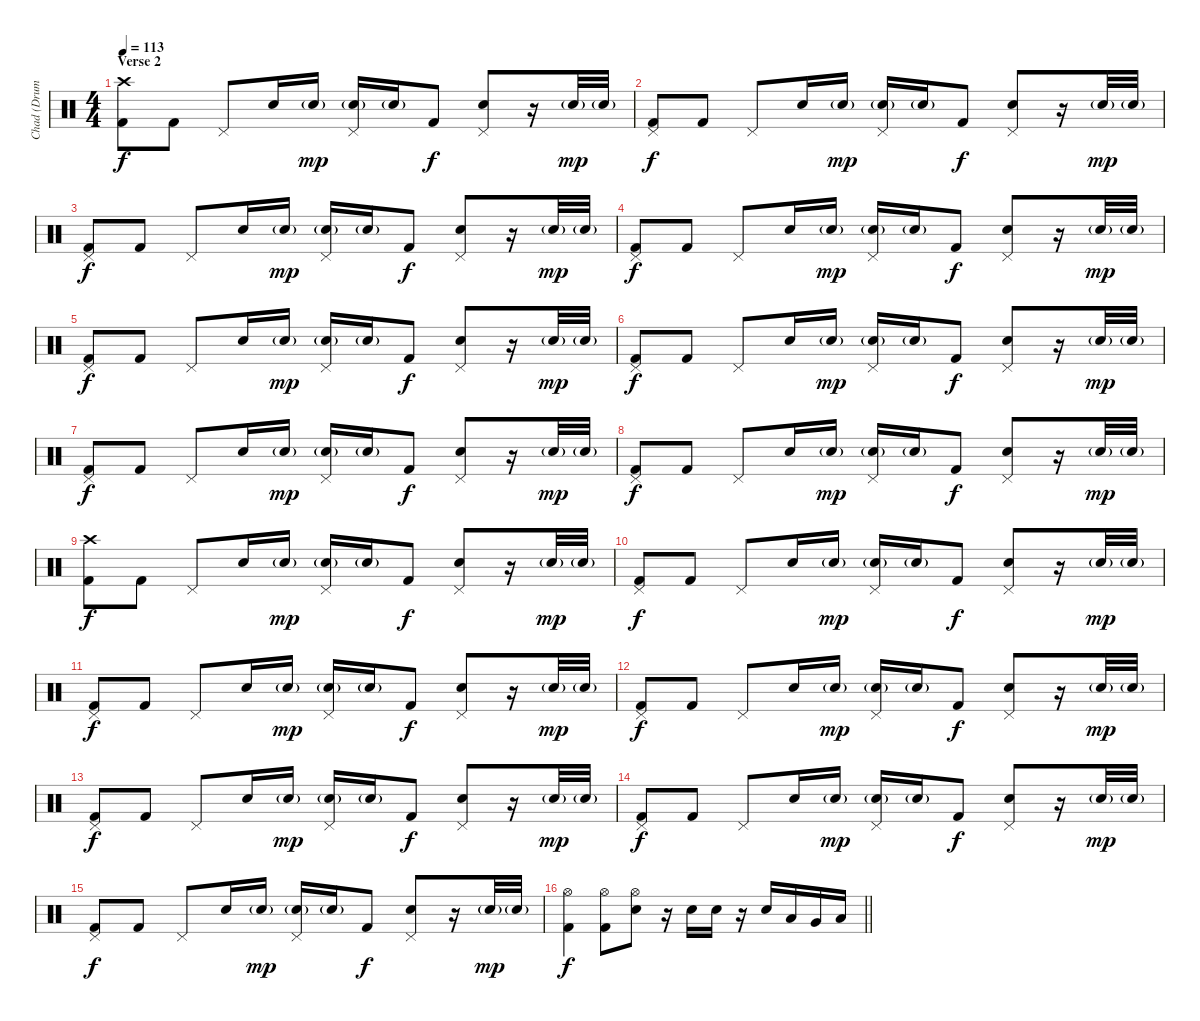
\track ("Chad (Drums)" "Chad (Drum") {instrument percussion}
\staff {score}
\articulation defaults
\ts (4 4)
\section ("" "Verse 2")
\tempo 113
\clef neutral
\ks c
("Crash high (hit)" "Kick (hit) 2").8{dy f} "Kick (hit) 2".8 "Pedal Hi-Hat (hit)".8 "Snare (hit) 2".16 "Snare (hit) 2"{g}.16{dy mp} ("Pedal Hi-Hat (hit)" "Snare (hit) 2"{g}).16 "Snare (hit) 2"{g}.16 "Kick (hit) 2".8{dy f} ("Pedal Hi-Hat (hit)" "Snare (hit) 2").8 r.16 "Snare (hit) 2"{g}.32{dy mp} "Snare (hit) 2"{g}.32 |
("Pedal Hi-Hat (hit)" "Kick (hit) 2").8{dy f} "Kick (hit) 2".8 "Pedal Hi-Hat (hit)".8 "Snare (hit) 2".16 "Snare (hit) 2"{g}.16{dy mp} ("Pedal Hi-Hat (hit)" "Snare (hit) 2"{g}).16 "Snare (hit) 2"{g}.16 "Kick (hit) 2".8{dy f} ("Pedal Hi-Hat (hit)" "Snare (hit) 2").8 r.16 "Snare (hit) 2"{g}.32{dy mp} "Snare (hit) 2"{g}.32 |
("Pedal Hi-Hat (hit)" "Kick (hit) 2").8{dy f} "Kick (hit) 2".8 "Pedal Hi-Hat (hit)".8 "Snare (hit) 2".16 "Snare (hit) 2"{g}.16{dy mp} ("Pedal Hi-Hat (hit)" "Snare (hit) 2"{g}).16 "Snare (hit) 2"{g}.16 "Kick (hit) 2".8{dy f} ("Pedal Hi-Hat (hit)" "Snare (hit) 2").8 r.16 "Snare (hit) 2"{g}.32{dy mp} "Snare (hit) 2"{g}.32 |
("Pedal Hi-Hat (hit)" "Kick (hit) 2").8{dy f} "Kick (hit) 2".8 "Pedal Hi-Hat (hit)".8 "Snare (hit) 2".16 "Snare (hit) 2"{g}.16{dy mp} ("Pedal Hi-Hat (hit)" "Snare (hit) 2"{g}).16 "Snare (hit) 2"{g}.16 "Kick (hit) 2".8{dy f} ("Pedal Hi-Hat (hit)" "Snare (hit) 2").8 r.16 "Snare (hit) 2"{g}.32{dy mp} "Snare (hit) 2"{g}.32 |
("Pedal Hi-Hat (hit)" "Kick (hit) 2").8{dy f} "Kick (hit) 2".8 "Pedal Hi-Hat (hit)".8 "Snare (hit) 2".16 "Snare (hit) 2"{g}.16{dy mp} ("Pedal Hi-Hat (hit)" "Snare (hit) 2"{g}).16 "Snare (hit) 2"{g}.16 "Kick (hit) 2".8{dy f} ("Pedal Hi-Hat (hit)" "Snare (hit) 2").8 r.16 "Snare (hit) 2"{g}.32{dy mp} "Snare (hit) 2"{g}.32 |
("Pedal Hi-Hat (hit)" "Kick (hit) 2").8{dy f} "Kick (hit) 2".8 "Pedal Hi-Hat (hit)".8 "Snare (hit) 2".16 "Snare (hit) 2"{g}.16{dy mp} ("Pedal Hi-Hat (hit)" "Snare (hit) 2"{g}).16 "Snare (hit) 2"{g}.16 "Kick (hit) 2".8{dy f} ("Pedal Hi-Hat (hit)" "Snare (hit) 2").8 r.16 "Snare (hit) 2"{g}.32{dy mp} "Snare (hit) 2"{g}.32 |
("Pedal Hi-Hat (hit)" "Kick (hit) 2").8{dy f} "Kick (hit) 2".8 "Pedal Hi-Hat (hit)".8 "Snare (hit) 2".16 "Snare (hit) 2"{g}.16{dy mp} ("Pedal Hi-Hat (hit)" "Snare (hit) 2"{g}).16 "Snare (hit) 2"{g}.16 "Kick (hit) 2".8{dy f} ("Pedal Hi-Hat (hit)" "Snare (hit) 2").8 r.16 "Snare (hit) 2"{g}.32{dy mp} "Snare (hit) 2"{g}.32 |
("Pedal Hi-Hat (hit)" "Kick (hit) 2").8{dy f} "Kick (hit) 2".8 "Pedal Hi-Hat (hit)".8 "Snare (hit) 2".16 "Snare (hit) 2"{g}.16{dy mp} ("Pedal Hi-Hat (hit)" "Snare (hit) 2"{g}).16 "Snare (hit) 2"{g}.16 "Kick (hit) 2".8{dy f} ("Pedal Hi-Hat (hit)" "Snare (hit) 2").8 r.16 "Snare (hit) 2"{g}.32{dy mp} "Snare (hit) 2"{g}.32 |
("Crash high (hit)" "Kick (hit) 2").8{dy f} "Kick (hit) 2".8 "Pedal Hi-Hat (hit)".8 "Snare (hit) 2".16 "Snare (hit) 2"{g}.16{dy mp} ("Pedal Hi-Hat (hit)" "Snare (hit) 2"{g}).16 "Snare (hit) 2"{g}.16 "Kick (hit) 2".8{dy f} ("Pedal Hi-Hat (hit)" "Snare (hit) 2").8 r.16 "Snare (hit) 2"{g}.32{dy mp} "Snare (hit) 2"{g}.32 |
("Pedal Hi-Hat (hit)" "Kick (hit) 2").8{dy f} "Kick (hit) 2".8 "Pedal Hi-Hat (hit)".8 "Snare (hit) 2".16 "Snare (hit) 2"{g}.16{dy mp} ("Pedal Hi-Hat (hit)" "Snare (hit) 2"{g}).16 "Snare (hit) 2"{g}.16 "Kick (hit) 2".8{dy f} ("Pedal Hi-Hat (hit)" "Snare (hit) 2").8 r.16 "Snare (hit) 2"{g}.32{dy mp} "Snare (hit) 2"{g}.32 |
("Pedal Hi-Hat (hit)" "Kick (hit) 2").8{dy f} "Kick (hit) 2".8 "Pedal Hi-Hat (hit)".8 "Snare (hit) 2".16 "Snare (hit) 2"{g}.16{dy mp} ("Pedal Hi-Hat (hit)" "Snare (hit) 2"{g}).16 "Snare (hit) 2"{g}.16 "Kick (hit) 2".8{dy f} ("Pedal Hi-Hat (hit)" "Snare (hit) 2").8 r.16 "Snare (hit) 2"{g}.32{dy mp} "Snare (hit) 2"{g}.32 |
("Pedal Hi-Hat (hit)" "Kick (hit) 2").8{dy f} "Kick (hit) 2".8 "Pedal Hi-Hat (hit)".8 "Snare (hit) 2".16 "Snare (hit) 2"{g}.16{dy mp} ("Pedal Hi-Hat (hit)" "Snare (hit) 2"{g}).16 "Snare (hit) 2"{g}.16 "Kick (hit) 2".8{dy f} ("Pedal Hi-Hat (hit)" "Snare (hit) 2").8 r.16 "Snare (hit) 2"{g}.32{dy mp} "Snare (hit) 2"{g}.32 |
("Pedal Hi-Hat (hit)" "Kick (hit) 2").8{dy f} "Kick (hit) 2".8 "Pedal Hi-Hat (hit)".8 "Snare (hit) 2".16 "Snare (hit) 2"{g}.16{dy mp} ("Pedal Hi-Hat (hit)" "Snare (hit) 2"{g}).16 "Snare (hit) 2"{g}.16 "Kick (hit) 2".8{dy f} ("Pedal Hi-Hat (hit)" "Snare (hit) 2").8 r.16 "Snare (hit) 2"{g}.32{dy mp} "Snare (hit) 2"{g}.32 |
("Pedal Hi-Hat (hit)" "Kick (hit) 2").8{dy f} "Kick (hit) 2".8 "Pedal Hi-Hat (hit)".8 "Snare (hit) 2".16 "Snare (hit) 2"{g}.16{dy mp} ("Pedal Hi-Hat (hit)" "Snare (hit) 2"{g}).16 "Snare (hit) 2"{g}.16 "Kick (hit) 2".8{dy f} ("Pedal Hi-Hat (hit)" "Snare (hit) 2").8 r.16 "Snare (hit) 2"{g}.32{dy mp} "Snare (hit) 2"{g}.32 |
("Pedal Hi-Hat (hit)" "Kick (hit) 2").8{dy f} "Kick (hit) 2".8 "Pedal Hi-Hat (hit)".8 "Snare (hit) 2".16 "Snare (hit) 2"{g}.16{dy mp} ("Pedal Hi-Hat (hit)" "Snare (hit) 2"{g}).16 "Snare (hit) 2"{g}.16 "Kick (hit) 2".8{dy f} ("Pedal Hi-Hat (hit)" "Snare (hit) 2").8 r.16 "Snare (hit) 2"{g}.32{dy mp} "Snare (hit) 2"{g}.32 |
\barLineRight lightlight
("Hi-Hat (open)" "Kick (hit) 2").4{dy f} ("Hi-Hat (open)" "Kick (hit) 2").8 ("Hi-Hat (open)" "Snare (hit) 2").8 r.16 "Snare (hit) 2".16 "Snare (hit) 2".16 r.16 "Snare (hit) 2".16 "Low Tom (hit)".16 "Very Low Tom (hit)".16 "Low Floor Tom (hit)".16
